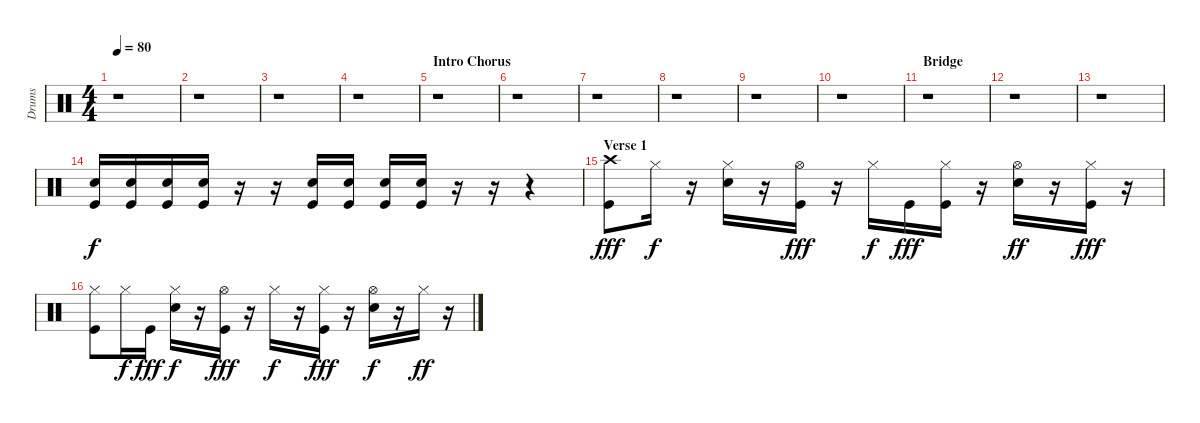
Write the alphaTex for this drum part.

\track ("Drums" "Drums") {instrument percussion}
\staff {score}
\articulation defaults
\ts (4 4)
\tempo 80
\clef neutral
\ks c
r.1{dy f} |
r.1 |
r.1 |
r.1 |
\section ("" "Intro Chorus")
r.1 |
r.1 |
r.1 |
r.1 |
r.1 |
r.1 |
\section ("" "Bridge")
r.1 |
r.1 |
r.1 |
("Snare (hit) 2" "Kick (hit)").16 ("Snare (hit) 2" "Kick (hit)").16 ("Snare (hit) 2" "Kick (hit)").16 ("Snare (hit) 2" "Kick (hit)").16 r.16 r.16 ("Snare (hit) 2" "Kick (hit)").16 ("Snare (hit) 2" "Kick (hit)").16 ("Snare (hit) 2" "Kick (hit)").16 ("Snare (hit) 2" "Kick (hit)").16 r.16 r.16 r.4 |
\section ("" "Verse 1")
("Crash high (hit)" "Kick (hit)").8{dy fff} "Hi-Hat (closed)".16{dy f} r.16 ("Hi-Hat (closed)" "Snare (hit) 2").16 r.16 ("Hi-Hat (open)" "Kick (hit)").16{dy fff} r.16 "Hi-Hat (closed)".16{dy f} "Kick (hit)".16{dy fff} ("Hi-Hat (closed)" "Kick (hit)").16 r.16 ("Hi-Hat (open)" "Snare (hit) 2").16{dy ff} r.16 ("Hi-Hat (closed)" "Kick (hit)").16{dy fff} r.16 |
("Hi-Hat (closed)" "Kick (hit)").8 "Hi-Hat (closed)".16{dy f} "Kick (hit)".16{dy fff} ("Hi-Hat (closed)" "Snare (hit) 2").16{dy f} r.16 ("Hi-Hat (open)" "Kick (hit)").16{dy fff} r.16 "Hi-Hat (closed)".16{dy f} r.16 ("Hi-Hat (closed)" "Kick (hit)").16{dy fff} r.16 ("Hi-Hat (open)" "Snare (hit) 2").16{dy f} r.16 "Hi-Hat (closed)".16{dy ff} r.16
